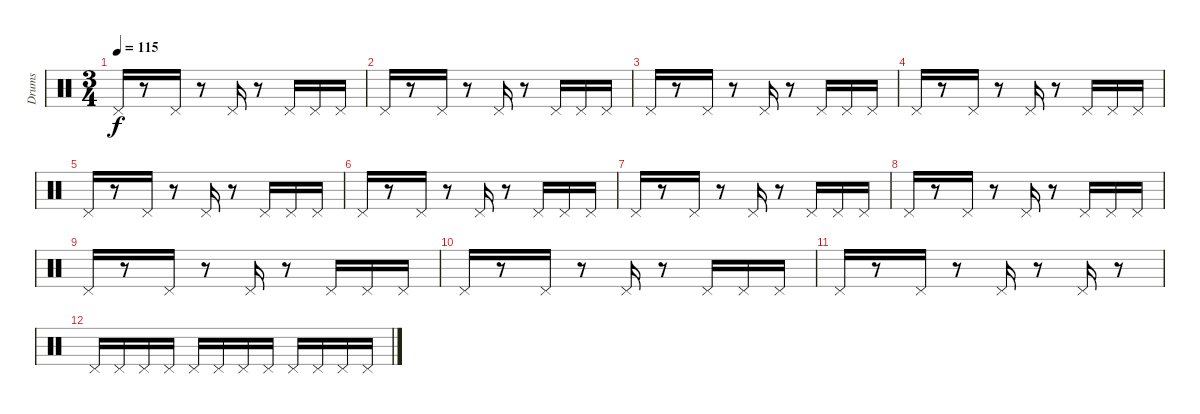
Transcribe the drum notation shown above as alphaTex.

\track ("Drums" "Drums") {instrument percussion}
\staff {score}
\articulation defaults
\ts (3 4)
\tempo 115
\clef neutral
\ks c "Pedal Hi-Hat (hit)".16{dy f}
r.8 "Pedal Hi-Hat (hit)".16 r.8 "Pedal Hi-Hat (hit)".16 r.8 "Pedal Hi-Hat (hit)".16 "Pedal Hi-Hat (hit)".16 "Pedal Hi-Hat (hit)".16 |
"Pedal Hi-Hat (hit)".16 r.8 "Pedal Hi-Hat (hit)".16 r.8 "Pedal Hi-Hat (hit)".16 r.8 "Pedal Hi-Hat (hit)".16 "Pedal Hi-Hat (hit)".16 "Pedal Hi-Hat (hit)".16 |
"Pedal Hi-Hat (hit)".16 r.8 "Pedal Hi-Hat (hit)".16 r.8 "Pedal Hi-Hat (hit)".16 r.8 "Pedal Hi-Hat (hit)".16 "Pedal Hi-Hat (hit)".16 "Pedal Hi-Hat (hit)".16 |
"Pedal Hi-Hat (hit)".16 r.8 "Pedal Hi-Hat (hit)".16 r.8 "Pedal Hi-Hat (hit)".16 r.8 "Pedal Hi-Hat (hit)".16 "Pedal Hi-Hat (hit)".16 "Pedal Hi-Hat (hit)".16 |
"Pedal Hi-Hat (hit)".16 r.8 "Pedal Hi-Hat (hit)".16 r.8 "Pedal Hi-Hat (hit)".16 r.8 "Pedal Hi-Hat (hit)".16 "Pedal Hi-Hat (hit)".16 "Pedal Hi-Hat (hit)".16 |
"Pedal Hi-Hat (hit)".16 r.8 "Pedal Hi-Hat (hit)".16 r.8 "Pedal Hi-Hat (hit)".16 r.8 "Pedal Hi-Hat (hit)".16 "Pedal Hi-Hat (hit)".16 "Pedal Hi-Hat (hit)".16 |
"Pedal Hi-Hat (hit)".16 r.8 "Pedal Hi-Hat (hit)".16 r.8 "Pedal Hi-Hat (hit)".16 r.8 "Pedal Hi-Hat (hit)".16 "Pedal Hi-Hat (hit)".16 "Pedal Hi-Hat (hit)".16 |
"Pedal Hi-Hat (hit)".16 r.8 "Pedal Hi-Hat (hit)".16 r.8 "Pedal Hi-Hat (hit)".16 r.8 "Pedal Hi-Hat (hit)".16 "Pedal Hi-Hat (hit)".16 "Pedal Hi-Hat (hit)".16 |
"Pedal Hi-Hat (hit)".16 r.8 "Pedal Hi-Hat (hit)".16 r.8 "Pedal Hi-Hat (hit)".16 r.8 "Pedal Hi-Hat (hit)".16 "Pedal Hi-Hat (hit)".16 "Pedal Hi-Hat (hit)".16 |
"Pedal Hi-Hat (hit)".16 r.8 "Pedal Hi-Hat (hit)".16 r.8 "Pedal Hi-Hat (hit)".16 r.8 "Pedal Hi-Hat (hit)".16 "Pedal Hi-Hat (hit)".16 "Pedal Hi-Hat (hit)".16 |
"Pedal Hi-Hat (hit)".16 r.8 "Pedal Hi-Hat (hit)".16 r.8 "Pedal Hi-Hat (hit)".16 r.8 "Pedal Hi-Hat (hit)".16 r.8 |
"Pedal Hi-Hat (hit)".16 "Pedal Hi-Hat (hit)".16 "Pedal Hi-Hat (hit)".16 "Pedal Hi-Hat (hit)".16 "Pedal Hi-Hat (hit)".16 "Pedal Hi-Hat (hit)".16 "Pedal Hi-Hat (hit)".16 "Pedal Hi-Hat (hit)".16 "Pedal Hi-Hat (hit)".16 "Pedal Hi-Hat (hit)".16 "Pedal Hi-Hat (hit)".16 "Pedal Hi-Hat (hit)".16
